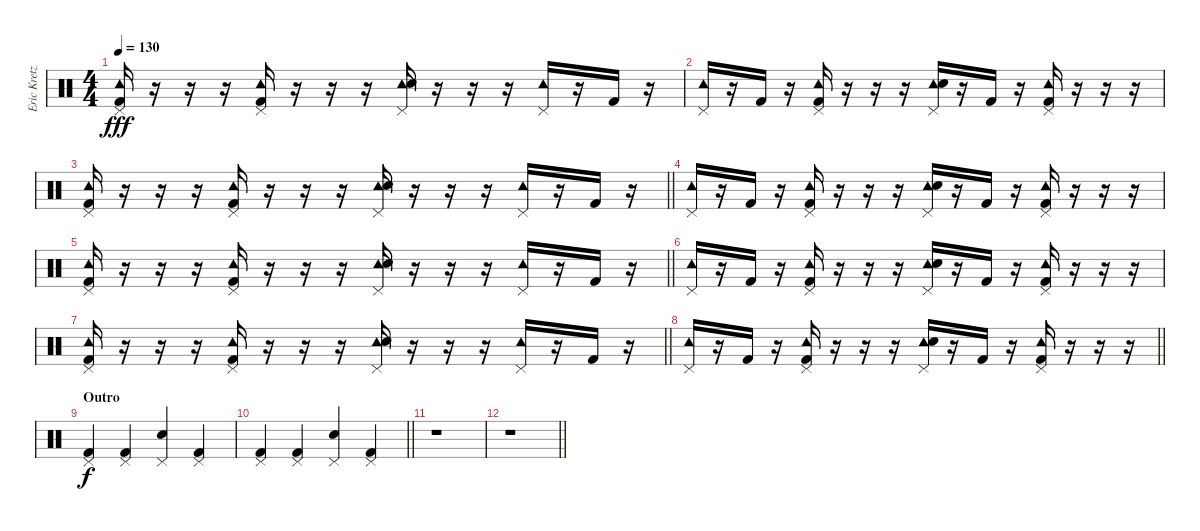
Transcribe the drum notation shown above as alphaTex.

\track ("Eric Kretz (Drums)" "Eric Kretz") {instrument percussion}
\staff {score}
\articulation defaults
\ts (4 4)
\tempo 130
\clef neutral
\ks c
("Pedal Hi-Hat (hit)" "Tambourine (hit)" "Kick (hit) 2").16{dy fff} r.16 r.16 r.16 ("Pedal Hi-Hat (hit)" "Tambourine (hit)" "Kick (hit) 2").16 r.16 r.16 r.16 ("Pedal Hi-Hat (hit)" "Tambourine (hit)" "Electric Snare (hit)").16 r.16 r.16 r.16 ("Pedal Hi-Hat (hit)" "Tambourine (hit)").16 r.16 "Kick (hit) 2".16 r.16 |
("Pedal Hi-Hat (hit)" "Tambourine (hit)").16 r.16 "Kick (hit) 2".16 r.16 ("Pedal Hi-Hat (hit)" "Tambourine (hit)" "Kick (hit) 2").16 r.16 r.16 r.16 ("Pedal Hi-Hat (hit)" "Tambourine (hit)" "Electric Snare (hit)").16 r.16 "Kick (hit) 2".16 r.16 ("Pedal Hi-Hat (hit)" "Tambourine (hit)" "Kick (hit) 2").16 r.16 r.16 r.16 |
\barLineRight lightlight
("Pedal Hi-Hat (hit)" "Tambourine (hit)" "Kick (hit) 2").16 r.16 r.16 r.16 ("Pedal Hi-Hat (hit)" "Tambourine (hit)" "Kick (hit) 2").16 r.16 r.16 r.16 ("Pedal Hi-Hat (hit)" "Tambourine (hit)" "Electric Snare (hit)").16 r.16 r.16 r.16 ("Pedal Hi-Hat (hit)" "Tambourine (hit)").16 r.16 "Kick (hit) 2".16 r.16 |
("Pedal Hi-Hat (hit)" "Tambourine (hit)").16 r.16 "Kick (hit) 2".16 r.16 ("Pedal Hi-Hat (hit)" "Tambourine (hit)" "Kick (hit) 2").16 r.16 r.16 r.16 ("Pedal Hi-Hat (hit)" "Tambourine (hit)" "Electric Snare (hit)").16 r.16 "Kick (hit) 2".16 r.16 ("Pedal Hi-Hat (hit)" "Tambourine (hit)" "Kick (hit) 2").16 r.16 r.16 r.16 |
\barLineRight lightlight
("Pedal Hi-Hat (hit)" "Tambourine (hit)" "Kick (hit) 2").16 r.16 r.16 r.16 ("Pedal Hi-Hat (hit)" "Tambourine (hit)" "Kick (hit) 2").16 r.16 r.16 r.16 ("Pedal Hi-Hat (hit)" "Tambourine (hit)" "Electric Snare (hit)").16 r.16 r.16 r.16 ("Pedal Hi-Hat (hit)" "Tambourine (hit)").16 r.16 "Kick (hit) 2".16 r.16 |
("Pedal Hi-Hat (hit)" "Tambourine (hit)").16 r.16 "Kick (hit) 2".16 r.16 ("Pedal Hi-Hat (hit)" "Tambourine (hit)" "Kick (hit) 2").16 r.16 r.16 r.16 ("Pedal Hi-Hat (hit)" "Tambourine (hit)" "Electric Snare (hit)").16 r.16 "Kick (hit) 2".16 r.16 ("Pedal Hi-Hat (hit)" "Tambourine (hit)" "Kick (hit) 2").16 r.16 r.16 r.16 |
\barLineRight lightlight
("Pedal Hi-Hat (hit)" "Tambourine (hit)" "Kick (hit) 2").16 r.16 r.16 r.16 ("Pedal Hi-Hat (hit)" "Tambourine (hit)" "Kick (hit) 2").16 r.16 r.16 r.16 ("Pedal Hi-Hat (hit)" "Tambourine (hit)" "Electric Snare (hit)").16 r.16 r.16 r.16 ("Pedal Hi-Hat (hit)" "Tambourine (hit)").16 r.16 "Kick (hit) 2".16 r.16 |
\barLineRight lightlight
("Pedal Hi-Hat (hit)" "Tambourine (hit)").16 r.16 "Kick (hit) 2".16 r.16 ("Pedal Hi-Hat (hit)" "Tambourine (hit)" "Kick (hit) 2").16 r.16 r.16 r.16 ("Pedal Hi-Hat (hit)" "Tambourine (hit)" "Electric Snare (hit)").16 r.16 "Kick (hit) 2".16 r.16 ("Pedal Hi-Hat (hit)" "Tambourine (hit)" "Kick (hit) 2").16 r.16 r.16 r.16 |
\section ("" "Outro")
("Pedal Hi-Hat (hit)" "Kick (hit) 2").4{dy f} ("Pedal Hi-Hat (hit)" "Kick (hit) 2").4 ("Pedal Hi-Hat (hit)" "Electric Snare (hit)").4 ("Pedal Hi-Hat (hit)" "Kick (hit) 2").4 |
\barLineRight lightlight
("Pedal Hi-Hat (hit)" "Kick (hit) 2").4 ("Pedal Hi-Hat (hit)" "Kick (hit) 2").4 ("Pedal Hi-Hat (hit)" "Electric Snare (hit)").4 ("Pedal Hi-Hat (hit)" "Kick (hit) 2").4 |
r.1 |
\barLineRight lightlight
r.1
